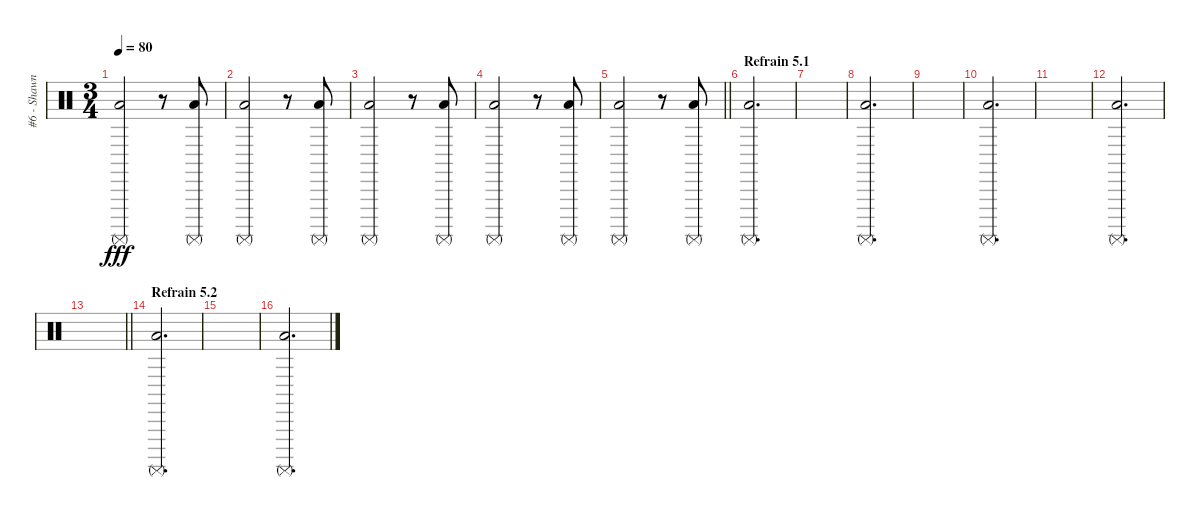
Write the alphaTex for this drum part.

\track ("#6 - Shawn Crahan" "#6 - Shawn") {instrument percussion}
\staff {score}
\articulation defaults
\ts (3 4)
\tempo 80
\clef neutral
\ks c
("Low Floor Tom (hit)" "Surdo (mute)").2{dy fff} r.8 ("Low Floor Tom (hit)" "Surdo (mute)").8 |
("Low Floor Tom (hit)" "Surdo (mute)").2 r.8 ("Low Floor Tom (hit)" "Surdo (mute)").8 |
("Low Floor Tom (hit)" "Surdo (mute)").2 r.8 ("Low Floor Tom (hit)" "Surdo (mute)").8 |
("Low Floor Tom (hit)" "Surdo (mute)").2 r.8 ("Low Floor Tom (hit)" "Surdo (mute)").8 |
\barLineRight lightlight
("Low Floor Tom (hit)" "Surdo (mute)").2 r.8 ("Low Floor Tom (hit)" "Surdo (mute)").8 |
\section ("" "Refrain 5.1")
("Low Floor Tom (hit)" "Surdo (mute)").2{d volume 16} |
|
("Low Floor Tom (hit)" "Surdo (mute)").2{d volume 16} |
|
("Low Floor Tom (hit)" "Surdo (mute)").2{d volume 16} |
|
("Low Floor Tom (hit)" "Surdo (mute)").2{d volume 16} |
\barLineRight lightlight
|
\section ("" "Refrain 5.2")
("Low Floor Tom (hit)" "Surdo (mute)").2{d volume 16} |
|
("Low Floor Tom (hit)" "Surdo (mute)").2{d volume 16}
